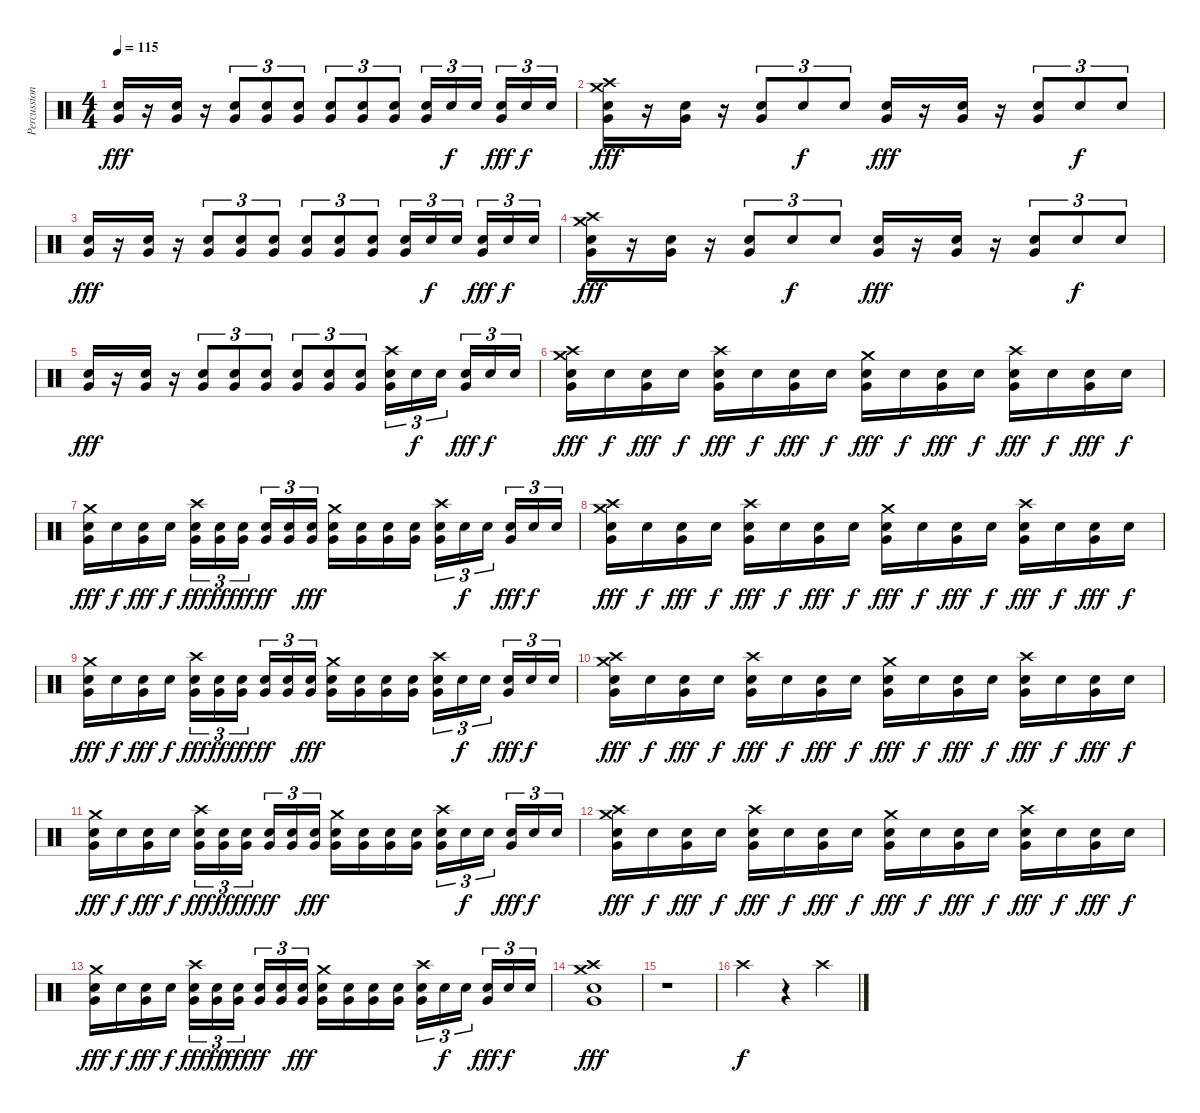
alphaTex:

\track ("Percussions" "Percussion") {instrument percussion}
\staff {score}
\articulation defaults
\ts (4 4)
\tempo 115
\clef neutral
\ks c
("Electric Snare (hit)" "Very Low Tom (hit)").16{dy fff} r.16 ("Electric Snare (hit)" "Very Low Tom (hit)").16 r.16 ("Electric Snare (hit)" "Very Low Tom (hit)").8{tu (3 2)} ("Electric Snare (hit)" "Very Low Tom (hit)").8{tu (3 2)} ("Electric Snare (hit)" "Very Low Tom (hit)").8{tu (3 2)} ("Electric Snare (hit)" "Very Low Tom (hit)").8{tu (3 2)} ("Electric Snare (hit)" "Very Low Tom (hit)").8{tu (3 2)} ("Electric Snare (hit)" "Very Low Tom (hit)").8{tu (3 2)} ("Electric Snare (hit)" "Very Low Tom (hit)").16{tu (3 2)} "Electric Snare (hit)".16{tu (3 2) dy f} "Electric Snare (hit)".16{tu (3 2)} ("Electric Snare (hit)" "Very Low Tom (hit)").16{tu (3 2) dy fff} "Electric Snare (hit)".16{tu (3 2) dy f} "Electric Snare (hit)".16{tu (3 2)} |
("Crash medium (hit)" "Crash high (hit)" "Electric Snare (hit)" "Very Low Tom (hit)").16{dy fff} r.16 ("Electric Snare (hit)" "Very Low Tom (hit)").16 r.16 ("Electric Snare (hit)" "Very Low Tom (hit)").8{tu (3 2)} "Electric Snare (hit)".8{tu (3 2) dy f} "Electric Snare (hit)".8{tu (3 2)} ("Electric Snare (hit)" "Very Low Tom (hit)").16{dy fff} r.16 ("Electric Snare (hit)" "Very Low Tom (hit)").16 r.16 ("Electric Snare (hit)" "Very Low Tom (hit)").8{tu (3 2)} "Electric Snare (hit)".8{tu (3 2) dy f} "Electric Snare (hit)".8{tu (3 2)} |
("Electric Snare (hit)" "Very Low Tom (hit)").16{dy fff} r.16 ("Electric Snare (hit)" "Very Low Tom (hit)").16 r.16 ("Electric Snare (hit)" "Very Low Tom (hit)").8{tu (3 2)} ("Electric Snare (hit)" "Very Low Tom (hit)").8{tu (3 2)} ("Electric Snare (hit)" "Very Low Tom (hit)").8{tu (3 2)} ("Electric Snare (hit)" "Very Low Tom (hit)").8{tu (3 2)} ("Electric Snare (hit)" "Very Low Tom (hit)").8{tu (3 2)} ("Electric Snare (hit)" "Very Low Tom (hit)").8{tu (3 2)} ("Electric Snare (hit)" "Very Low Tom (hit)").16{tu (3 2)} "Electric Snare (hit)".16{tu (3 2) dy f} "Electric Snare (hit)".16{tu (3 2)} ("Electric Snare (hit)" "Very Low Tom (hit)").16{tu (3 2) dy fff} "Electric Snare (hit)".16{tu (3 2) dy f} "Electric Snare (hit)".16{tu (3 2)} |
("Crash medium (hit)" "Crash high (hit)" "Electric Snare (hit)" "Very Low Tom (hit)").16{dy fff} r.16 ("Electric Snare (hit)" "Very Low Tom (hit)").16 r.16 ("Electric Snare (hit)" "Very Low Tom (hit)").8{tu (3 2)} "Electric Snare (hit)".8{tu (3 2) dy f} "Electric Snare (hit)".8{tu (3 2)} ("Electric Snare (hit)" "Very Low Tom (hit)").16{dy fff} r.16 ("Electric Snare (hit)" "Very Low Tom (hit)").16 r.16 ("Electric Snare (hit)" "Very Low Tom (hit)").8{tu (3 2)} "Electric Snare (hit)".8{tu (3 2) dy f} "Electric Snare (hit)".8{tu (3 2)} |
("Electric Snare (hit)" "Very Low Tom (hit)").16{dy fff} r.16 ("Electric Snare (hit)" "Very Low Tom (hit)").16 r.16 ("Electric Snare (hit)" "Very Low Tom (hit)").8{tu (3 2)} ("Electric Snare (hit)" "Very Low Tom (hit)").8{tu (3 2)} ("Electric Snare (hit)" "Very Low Tom (hit)").8{tu (3 2)} ("Electric Snare (hit)" "Very Low Tom (hit)").8{tu (3 2)} ("Electric Snare (hit)" "Very Low Tom (hit)").8{tu (3 2)} ("Electric Snare (hit)" "Very Low Tom (hit)").8{tu (3 2)} ("Crash high (hit)" "Electric Snare (hit)" "Very Low Tom (hit)").16{tu (3 2)} "Electric Snare (hit)".16{tu (3 2) dy f} "Electric Snare (hit)".16{tu (3 2)} ("Electric Snare (hit)" "Very Low Tom (hit)").16{tu (3 2) dy fff} "Electric Snare (hit)".16{tu (3 2) dy f} "Electric Snare (hit)".16{tu (3 2)} |
("Crash medium (hit)" "Crash high (hit)" "Electric Snare (hit)" "Very Low Tom (hit)").16{dy fff} "Electric Snare (hit)".16{dy f} ("Electric Snare (hit)" "Very Low Tom (hit)").16{dy fff} "Electric Snare (hit)".16{dy f} ("Crash high (hit)" "Electric Snare (hit)" "Very Low Tom (hit)").16{dy fff} "Electric Snare (hit)".16{dy f} ("Electric Snare (hit)" "Very Low Tom (hit)").16{dy fff} "Electric Snare (hit)".16{dy f} ("Crash medium (hit)" "Electric Snare (hit)" "Very Low Tom (hit)").16{dy fff} "Electric Snare (hit)".16{dy f} ("Electric Snare (hit)" "Very Low Tom (hit)").16{dy fff} "Electric Snare (hit)".16{dy f} ("Crash high (hit)" "Electric Snare (hit)" "Very Low Tom (hit)").16{dy fff} "Electric Snare (hit)".16{dy f} ("Electric Snare (hit)" "Very Low Tom (hit)").16{dy fff} "Electric Snare (hit)".16{dy f} |
("Crash medium (hit)" "Electric Snare (hit)" "Very Low Tom (hit)").16{dy fff} "Electric Snare (hit)".16{dy f} ("Electric Snare (hit)" "Very Low Tom (hit)").16{dy fff} "Electric Snare (hit)".16{dy f} ("Crash high (hit)" "Electric Snare (hit)" "Very Low Tom (hit)").16{tu (3 2) dy fff} ("Electric Snare (hit)" "Very Low Tom (hit)").16{tu (3 2) dy ff} ("Electric Snare (hit)" "Very Low Tom (hit)").16{tu (3 2) dy fff} ("Electric Snare (hit)" "Very Low Tom (hit)").16{tu (3 2) dy ff} ("Electric Snare (hit)" "Very Low Tom (hit)").16{tu (3 2)} ("Electric Snare (hit)" "Very Low Tom (hit)").16{tu (3 2) dy fff} ("Crash medium (hit)" "Electric Snare (hit)" "Very Low Tom (hit)").16 ("Electric Snare (hit)" "Very Low Tom (hit)").16 ("Electric Snare (hit)" "Very Low Tom (hit)").16 ("Electric Snare (hit)" "Very Low Tom (hit)").16 ("Crash high (hit)" "Electric Snare (hit)" "Very Low Tom (hit)").16{tu (3 2)} "Electric Snare (hit)".16{tu (3 2) dy f} "Electric Snare (hit)".16{tu (3 2)} ("Electric Snare (hit)" "Very Low Tom (hit)").16{tu (3 2) dy fff} "Electric Snare (hit)".16{tu (3 2) dy f} "Electric Snare (hit)".16{tu (3 2)} |
("Crash medium (hit)" "Crash high (hit)" "Electric Snare (hit)" "Very Low Tom (hit)").16{dy fff} "Electric Snare (hit)".16{dy f} ("Electric Snare (hit)" "Very Low Tom (hit)").16{dy fff} "Electric Snare (hit)".16{dy f} ("Crash high (hit)" "Electric Snare (hit)" "Very Low Tom (hit)").16{dy fff} "Electric Snare (hit)".16{dy f} ("Electric Snare (hit)" "Very Low Tom (hit)").16{dy fff} "Electric Snare (hit)".16{dy f} ("Crash medium (hit)" "Electric Snare (hit)" "Very Low Tom (hit)").16{dy fff} "Electric Snare (hit)".16{dy f} ("Electric Snare (hit)" "Very Low Tom (hit)").16{dy fff} "Electric Snare (hit)".16{dy f} ("Crash high (hit)" "Electric Snare (hit)" "Very Low Tom (hit)").16{dy fff} "Electric Snare (hit)".16{dy f} ("Electric Snare (hit)" "Very Low Tom (hit)").16{dy fff} "Electric Snare (hit)".16{dy f} |
("Crash medium (hit)" "Electric Snare (hit)" "Very Low Tom (hit)").16{dy fff} "Electric Snare (hit)".16{dy f} ("Electric Snare (hit)" "Very Low Tom (hit)").16{dy fff} "Electric Snare (hit)".16{dy f} ("Crash high (hit)" "Electric Snare (hit)" "Very Low Tom (hit)").16{tu (3 2) dy fff} ("Electric Snare (hit)" "Very Low Tom (hit)").16{tu (3 2) dy ff} ("Electric Snare (hit)" "Very Low Tom (hit)").16{tu (3 2) dy fff} ("Electric Snare (hit)" "Very Low Tom (hit)").16{tu (3 2) dy ff} ("Electric Snare (hit)" "Very Low Tom (hit)").16{tu (3 2)} ("Electric Snare (hit)" "Very Low Tom (hit)").16{tu (3 2) dy fff} ("Crash medium (hit)" "Electric Snare (hit)" "Very Low Tom (hit)").16 ("Electric Snare (hit)" "Very Low Tom (hit)").16 ("Electric Snare (hit)" "Very Low Tom (hit)").16 ("Electric Snare (hit)" "Very Low Tom (hit)").16 ("Crash high (hit)" "Electric Snare (hit)" "Very Low Tom (hit)").16{tu (3 2)} "Electric Snare (hit)".16{tu (3 2) dy f} "Electric Snare (hit)".16{tu (3 2)} ("Electric Snare (hit)" "Very Low Tom (hit)").16{tu (3 2) dy fff} "Electric Snare (hit)".16{tu (3 2) dy f} "Electric Snare (hit)".16{tu (3 2)} |
("Crash medium (hit)" "Crash high (hit)" "Electric Snare (hit)" "Very Low Tom (hit)").16{dy fff} "Electric Snare (hit)".16{dy f} ("Electric Snare (hit)" "Very Low Tom (hit)").16{dy fff} "Electric Snare (hit)".16{dy f} ("Crash high (hit)" "Electric Snare (hit)" "Very Low Tom (hit)").16{dy fff} "Electric Snare (hit)".16{dy f} ("Electric Snare (hit)" "Very Low Tom (hit)").16{dy fff} "Electric Snare (hit)".16{dy f} ("Crash medium (hit)" "Electric Snare (hit)" "Very Low Tom (hit)").16{dy fff} "Electric Snare (hit)".16{dy f} ("Electric Snare (hit)" "Very Low Tom (hit)").16{dy fff} "Electric Snare (hit)".16{dy f} ("Crash high (hit)" "Electric Snare (hit)" "Very Low Tom (hit)").16{dy fff} "Electric Snare (hit)".16{dy f} ("Electric Snare (hit)" "Very Low Tom (hit)").16{dy fff} "Electric Snare (hit)".16{dy f} |
("Crash medium (hit)" "Electric Snare (hit)" "Very Low Tom (hit)").16{dy fff} "Electric Snare (hit)".16{dy f} ("Electric Snare (hit)" "Very Low Tom (hit)").16{dy fff} "Electric Snare (hit)".16{dy f} ("Crash high (hit)" "Electric Snare (hit)" "Very Low Tom (hit)").16{tu (3 2) dy fff} ("Electric Snare (hit)" "Very Low Tom (hit)").16{tu (3 2) dy ff} ("Electric Snare (hit)" "Very Low Tom (hit)").16{tu (3 2) dy fff} ("Electric Snare (hit)" "Very Low Tom (hit)").16{tu (3 2) dy ff} ("Electric Snare (hit)" "Very Low Tom (hit)").16{tu (3 2)} ("Electric Snare (hit)" "Very Low Tom (hit)").16{tu (3 2) dy fff} ("Crash medium (hit)" "Electric Snare (hit)" "Very Low Tom (hit)").16 ("Electric Snare (hit)" "Very Low Tom (hit)").16 ("Electric Snare (hit)" "Very Low Tom (hit)").16 ("Electric Snare (hit)" "Very Low Tom (hit)").16 ("Crash high (hit)" "Electric Snare (hit)" "Very Low Tom (hit)").16{tu (3 2)} "Electric Snare (hit)".16{tu (3 2) dy f} "Electric Snare (hit)".16{tu (3 2)} ("Electric Snare (hit)" "Very Low Tom (hit)").16{tu (3 2) dy fff} "Electric Snare (hit)".16{tu (3 2) dy f} "Electric Snare (hit)".16{tu (3 2)} |
("Crash medium (hit)" "Crash high (hit)" "Electric Snare (hit)" "Very Low Tom (hit)").16{dy fff} "Electric Snare (hit)".16{dy f} ("Electric Snare (hit)" "Very Low Tom (hit)").16{dy fff} "Electric Snare (hit)".16{dy f} ("Crash high (hit)" "Electric Snare (hit)" "Very Low Tom (hit)").16{dy fff} "Electric Snare (hit)".16{dy f} ("Electric Snare (hit)" "Very Low Tom (hit)").16{dy fff} "Electric Snare (hit)".16{dy f} ("Crash medium (hit)" "Electric Snare (hit)" "Very Low Tom (hit)").16{dy fff} "Electric Snare (hit)".16{dy f} ("Electric Snare (hit)" "Very Low Tom (hit)").16{dy fff} "Electric Snare (hit)".16{dy f} ("Crash high (hit)" "Electric Snare (hit)" "Very Low Tom (hit)").16{dy fff} "Electric Snare (hit)".16{dy f} ("Electric Snare (hit)" "Very Low Tom (hit)").16{dy fff} "Electric Snare (hit)".16{dy f} |
("Crash medium (hit)" "Electric Snare (hit)" "Very Low Tom (hit)").16{dy fff} "Electric Snare (hit)".16{dy f} ("Electric Snare (hit)" "Very Low Tom (hit)").16{dy fff} "Electric Snare (hit)".16{dy f} ("Crash high (hit)" "Electric Snare (hit)" "Very Low Tom (hit)").16{tu (3 2) dy fff} ("Electric Snare (hit)" "Very Low Tom (hit)").16{tu (3 2) dy ff} ("Electric Snare (hit)" "Very Low Tom (hit)").16{tu (3 2) dy fff} ("Electric Snare (hit)" "Very Low Tom (hit)").16{tu (3 2) dy ff} ("Electric Snare (hit)" "Very Low Tom (hit)").16{tu (3 2)} ("Electric Snare (hit)" "Very Low Tom (hit)").16{tu (3 2) dy fff} ("Crash medium (hit)" "Electric Snare (hit)" "Very Low Tom (hit)").16 ("Electric Snare (hit)" "Very Low Tom (hit)").16 ("Electric Snare (hit)" "Very Low Tom (hit)").16 ("Electric Snare (hit)" "Very Low Tom (hit)").16 ("Crash high (hit)" "Electric Snare (hit)" "Very Low Tom (hit)").16{tu (3 2)} "Electric Snare (hit)".16{tu (3 2) dy f} "Electric Snare (hit)".16{tu (3 2)} ("Electric Snare (hit)" "Very Low Tom (hit)").16{tu (3 2) dy fff} "Electric Snare (hit)".16{tu (3 2) dy f} "Electric Snare (hit)".16{tu (3 2)} |
("Crash medium (hit)" "Crash high (hit)" "Electric Snare (hit)" "Very Low Tom (hit)").1{dy fff} |
r.1 |
\section ("" "")
"Crash high (hit)".2{dy f} r.4 "Crash high (hit)".4
